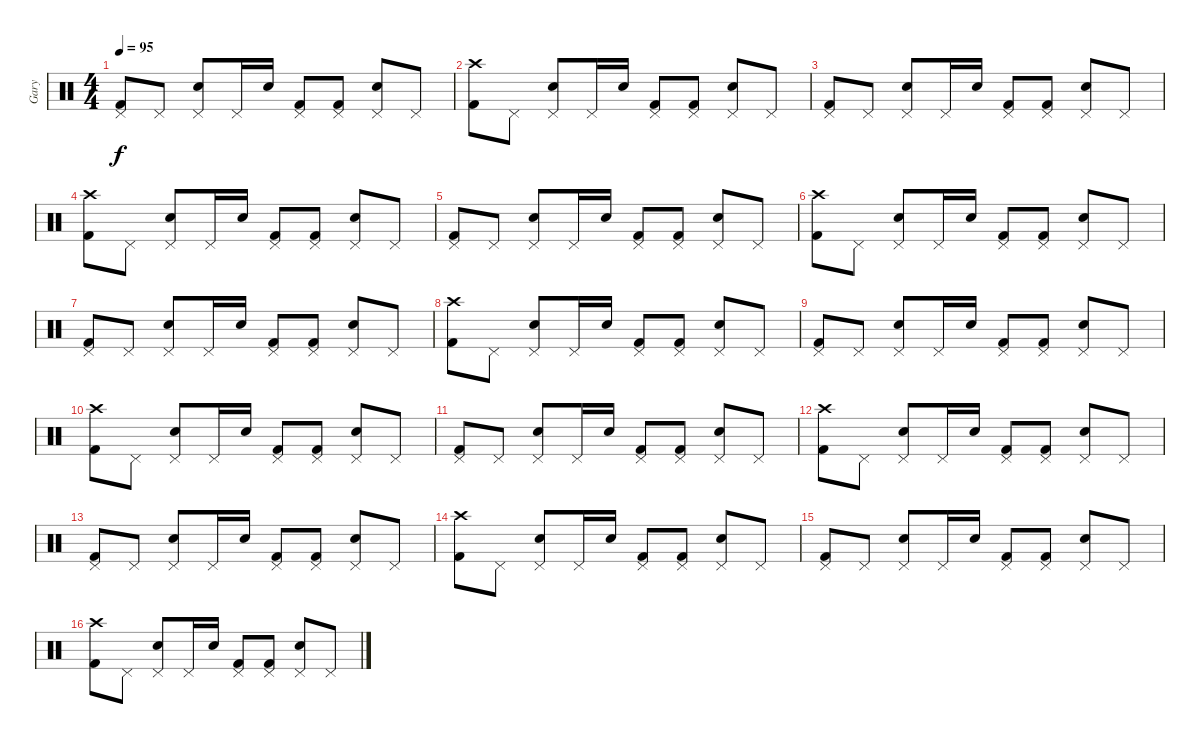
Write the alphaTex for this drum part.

\track ("Gary" "Gary") {instrument percussion}
\staff {score}
\articulation defaults
\ts (4 4)
\tempo 95
\clef neutral
\ks c
("Pedal Hi-Hat (hit)" "Kick (hit) 2").8{dy f} "Pedal Hi-Hat (hit)".8 ("Pedal Hi-Hat (hit)" "Electric Snare (hit)").8 "Pedal Hi-Hat (hit)".16 "Electric Snare (hit)".16 ("Pedal Hi-Hat (hit)" "Kick (hit) 2").8 ("Pedal Hi-Hat (hit)" "Kick (hit) 2").8 ("Pedal Hi-Hat (hit)" "Electric Snare (hit)").8 "Pedal Hi-Hat (hit)".8 |
("Crash high (hit)" "Kick (hit) 2").8 "Pedal Hi-Hat (hit)".8 ("Pedal Hi-Hat (hit)" "Electric Snare (hit)").8 "Pedal Hi-Hat (hit)".16 "Electric Snare (hit)".16 ("Pedal Hi-Hat (hit)" "Kick (hit) 2").8 ("Pedal Hi-Hat (hit)" "Kick (hit) 2").8 ("Pedal Hi-Hat (hit)" "Electric Snare (hit)").8 "Pedal Hi-Hat (hit)".8 |
("Pedal Hi-Hat (hit)" "Kick (hit) 2").8 "Pedal Hi-Hat (hit)".8 ("Pedal Hi-Hat (hit)" "Electric Snare (hit)").8 "Pedal Hi-Hat (hit)".16 "Electric Snare (hit)".16 ("Pedal Hi-Hat (hit)" "Kick (hit) 2").8 ("Pedal Hi-Hat (hit)" "Kick (hit) 2").8 ("Pedal Hi-Hat (hit)" "Electric Snare (hit)").8 "Pedal Hi-Hat (hit)".8 |
("Crash high (hit)" "Kick (hit) 2").8 "Pedal Hi-Hat (hit)".8 ("Pedal Hi-Hat (hit)" "Electric Snare (hit)").8 "Pedal Hi-Hat (hit)".16 "Electric Snare (hit)".16 ("Pedal Hi-Hat (hit)" "Kick (hit) 2").8 ("Pedal Hi-Hat (hit)" "Kick (hit) 2").8 ("Pedal Hi-Hat (hit)" "Electric Snare (hit)").8 "Pedal Hi-Hat (hit)".8 |
("Pedal Hi-Hat (hit)" "Kick (hit) 2").8 "Pedal Hi-Hat (hit)".8 ("Pedal Hi-Hat (hit)" "Electric Snare (hit)").8 "Pedal Hi-Hat (hit)".16 "Electric Snare (hit)".16 ("Pedal Hi-Hat (hit)" "Kick (hit) 2").8 ("Pedal Hi-Hat (hit)" "Kick (hit) 2").8 ("Pedal Hi-Hat (hit)" "Electric Snare (hit)").8 "Pedal Hi-Hat (hit)".8 |
("Crash high (hit)" "Kick (hit) 2").8 "Pedal Hi-Hat (hit)".8 ("Pedal Hi-Hat (hit)" "Electric Snare (hit)").8 "Pedal Hi-Hat (hit)".16 "Electric Snare (hit)".16 ("Pedal Hi-Hat (hit)" "Kick (hit) 2").8 ("Pedal Hi-Hat (hit)" "Kick (hit) 2").8 ("Pedal Hi-Hat (hit)" "Electric Snare (hit)").8 "Pedal Hi-Hat (hit)".8 |
("Pedal Hi-Hat (hit)" "Kick (hit) 2").8 "Pedal Hi-Hat (hit)".8 ("Pedal Hi-Hat (hit)" "Electric Snare (hit)").8 "Pedal Hi-Hat (hit)".16 "Electric Snare (hit)".16 ("Pedal Hi-Hat (hit)" "Kick (hit) 2").8 ("Pedal Hi-Hat (hit)" "Kick (hit) 2").8 ("Pedal Hi-Hat (hit)" "Electric Snare (hit)").8 "Pedal Hi-Hat (hit)".8 |
("Crash high (hit)" "Kick (hit) 2").8 "Pedal Hi-Hat (hit)".8 ("Pedal Hi-Hat (hit)" "Electric Snare (hit)").8 "Pedal Hi-Hat (hit)".16 "Electric Snare (hit)".16 ("Pedal Hi-Hat (hit)" "Kick (hit) 2").8 ("Pedal Hi-Hat (hit)" "Kick (hit) 2").8 ("Pedal Hi-Hat (hit)" "Electric Snare (hit)").8 "Pedal Hi-Hat (hit)".8 |
("Pedal Hi-Hat (hit)" "Kick (hit) 2").8 "Pedal Hi-Hat (hit)".8 ("Pedal Hi-Hat (hit)" "Electric Snare (hit)").8 "Pedal Hi-Hat (hit)".16 "Electric Snare (hit)".16 ("Pedal Hi-Hat (hit)" "Kick (hit) 2").8 ("Pedal Hi-Hat (hit)" "Kick (hit) 2").8 ("Pedal Hi-Hat (hit)" "Electric Snare (hit)").8 "Pedal Hi-Hat (hit)".8 |
("Crash high (hit)" "Kick (hit) 2").8 "Pedal Hi-Hat (hit)".8 ("Pedal Hi-Hat (hit)" "Electric Snare (hit)").8 "Pedal Hi-Hat (hit)".16 "Electric Snare (hit)".16 ("Pedal Hi-Hat (hit)" "Kick (hit) 2").8 ("Pedal Hi-Hat (hit)" "Kick (hit) 2").8 ("Pedal Hi-Hat (hit)" "Electric Snare (hit)").8 "Pedal Hi-Hat (hit)".8 |
("Pedal Hi-Hat (hit)" "Kick (hit) 2").8 "Pedal Hi-Hat (hit)".8 ("Pedal Hi-Hat (hit)" "Electric Snare (hit)").8 "Pedal Hi-Hat (hit)".16 "Electric Snare (hit)".16 ("Pedal Hi-Hat (hit)" "Kick (hit) 2").8 ("Pedal Hi-Hat (hit)" "Kick (hit) 2").8 ("Pedal Hi-Hat (hit)" "Electric Snare (hit)").8 "Pedal Hi-Hat (hit)".8 |
("Crash high (hit)" "Kick (hit) 2").8 "Pedal Hi-Hat (hit)".8 ("Pedal Hi-Hat (hit)" "Electric Snare (hit)").8 "Pedal Hi-Hat (hit)".16 "Electric Snare (hit)".16 ("Pedal Hi-Hat (hit)" "Kick (hit) 2").8 ("Pedal Hi-Hat (hit)" "Kick (hit) 2").8 ("Pedal Hi-Hat (hit)" "Electric Snare (hit)").8 "Pedal Hi-Hat (hit)".8 |
("Pedal Hi-Hat (hit)" "Kick (hit) 2").8 "Pedal Hi-Hat (hit)".8 ("Pedal Hi-Hat (hit)" "Electric Snare (hit)").8 "Pedal Hi-Hat (hit)".16 "Electric Snare (hit)".16 ("Pedal Hi-Hat (hit)" "Kick (hit) 2").8 ("Pedal Hi-Hat (hit)" "Kick (hit) 2").8 ("Pedal Hi-Hat (hit)" "Electric Snare (hit)").8 "Pedal Hi-Hat (hit)".8 |
("Crash high (hit)" "Kick (hit) 2").8 "Pedal Hi-Hat (hit)".8 ("Pedal Hi-Hat (hit)" "Electric Snare (hit)").8 "Pedal Hi-Hat (hit)".16 "Electric Snare (hit)".16 ("Pedal Hi-Hat (hit)" "Kick (hit) 2").8 ("Pedal Hi-Hat (hit)" "Kick (hit) 2").8 ("Pedal Hi-Hat (hit)" "Electric Snare (hit)").8 "Pedal Hi-Hat (hit)".8 |
("Pedal Hi-Hat (hit)" "Kick (hit) 2").8 "Pedal Hi-Hat (hit)".8 ("Pedal Hi-Hat (hit)" "Electric Snare (hit)").8 "Pedal Hi-Hat (hit)".16 "Electric Snare (hit)".16 ("Pedal Hi-Hat (hit)" "Kick (hit) 2").8 ("Pedal Hi-Hat (hit)" "Kick (hit) 2").8 ("Pedal Hi-Hat (hit)" "Electric Snare (hit)").8 "Pedal Hi-Hat (hit)".8 |
("Crash high (hit)" "Kick (hit) 2").8 "Pedal Hi-Hat (hit)".8 ("Pedal Hi-Hat (hit)" "Electric Snare (hit)").8 "Pedal Hi-Hat (hit)".16 "Electric Snare (hit)".16 ("Pedal Hi-Hat (hit)" "Kick (hit) 2").8 ("Pedal Hi-Hat (hit)" "Kick (hit) 2").8 ("Pedal Hi-Hat (hit)" "Electric Snare (hit)").8 "Pedal Hi-Hat (hit)".8
